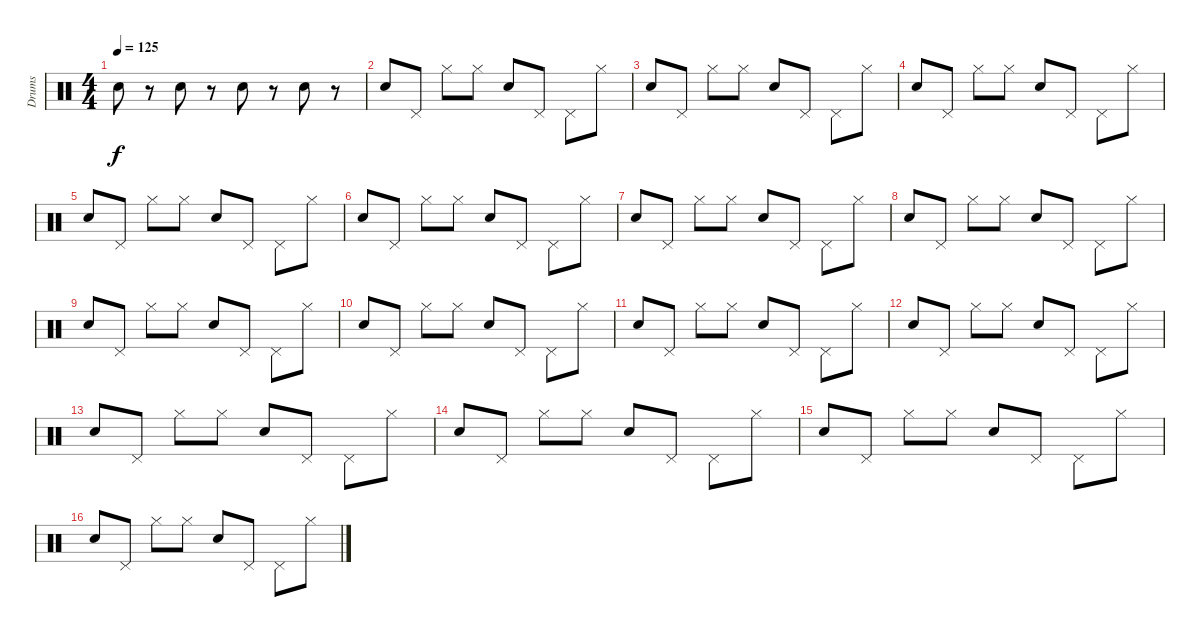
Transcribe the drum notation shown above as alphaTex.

\track ("Drums" "Drums") {instrument percussion}
\staff {score}
\articulation defaults
\ts (4 4)
\tempo 125
\clef neutral
\ks c "Snare (hit) 2".8{dy f}
r.8 "Snare (hit) 2".8 r.8 "Snare (hit) 2".8 r.8 "Snare (hit) 2".8 r.8 |
"Electric Snare (hit)".8 "Pedal Hi-Hat (hit)".8 "Hi-Hat (closed)".8 "Hi-Hat (closed)".8 "Electric Snare (hit)".8 "Pedal Hi-Hat (hit)".8 "Pedal Hi-Hat (hit)".8 "Hi-Hat (closed)".8 |
"Electric Snare (hit)".8 "Pedal Hi-Hat (hit)".8 "Hi-Hat (closed)".8 "Hi-Hat (closed)".8 "Electric Snare (hit)".8 "Pedal Hi-Hat (hit)".8 "Pedal Hi-Hat (hit)".8 "Hi-Hat (closed)".8 |
"Electric Snare (hit)".8 "Pedal Hi-Hat (hit)".8 "Hi-Hat (closed)".8 "Hi-Hat (closed)".8 "Electric Snare (hit)".8 "Pedal Hi-Hat (hit)".8 "Pedal Hi-Hat (hit)".8 "Hi-Hat (closed)".8 |
"Electric Snare (hit)".8 "Pedal Hi-Hat (hit)".8 "Hi-Hat (closed)".8 "Hi-Hat (closed)".8 "Electric Snare (hit)".8 "Pedal Hi-Hat (hit)".8 "Pedal Hi-Hat (hit)".8 "Hi-Hat (closed)".8 |
"Electric Snare (hit)".8 "Pedal Hi-Hat (hit)".8 "Hi-Hat (closed)".8 "Hi-Hat (closed)".8 "Electric Snare (hit)".8 "Pedal Hi-Hat (hit)".8 "Pedal Hi-Hat (hit)".8 "Hi-Hat (closed)".8 |
"Electric Snare (hit)".8 "Pedal Hi-Hat (hit)".8 "Hi-Hat (closed)".8 "Hi-Hat (closed)".8 "Electric Snare (hit)".8 "Pedal Hi-Hat (hit)".8 "Pedal Hi-Hat (hit)".8 "Hi-Hat (closed)".8 |
"Electric Snare (hit)".8 "Pedal Hi-Hat (hit)".8 "Hi-Hat (closed)".8 "Hi-Hat (closed)".8 "Electric Snare (hit)".8 "Pedal Hi-Hat (hit)".8 "Pedal Hi-Hat (hit)".8 "Hi-Hat (closed)".8 |
"Electric Snare (hit)".8 "Pedal Hi-Hat (hit)".8 "Hi-Hat (closed)".8 "Hi-Hat (closed)".8 "Electric Snare (hit)".8 "Pedal Hi-Hat (hit)".8 "Pedal Hi-Hat (hit)".8 "Hi-Hat (closed)".8 |
"Electric Snare (hit)".8 "Pedal Hi-Hat (hit)".8 "Hi-Hat (closed)".8 "Hi-Hat (closed)".8 "Electric Snare (hit)".8 "Pedal Hi-Hat (hit)".8 "Pedal Hi-Hat (hit)".8 "Hi-Hat (closed)".8 |
"Electric Snare (hit)".8 "Pedal Hi-Hat (hit)".8 "Hi-Hat (closed)".8 "Hi-Hat (closed)".8 "Electric Snare (hit)".8 "Pedal Hi-Hat (hit)".8 "Pedal Hi-Hat (hit)".8 "Hi-Hat (closed)".8 |
"Electric Snare (hit)".8 "Pedal Hi-Hat (hit)".8 "Hi-Hat (closed)".8 "Hi-Hat (closed)".8 "Electric Snare (hit)".8 "Pedal Hi-Hat (hit)".8 "Pedal Hi-Hat (hit)".8 "Hi-Hat (closed)".8 |
"Electric Snare (hit)".8 "Pedal Hi-Hat (hit)".8 "Hi-Hat (closed)".8 "Hi-Hat (closed)".8 "Electric Snare (hit)".8 "Pedal Hi-Hat (hit)".8 "Pedal Hi-Hat (hit)".8 "Hi-Hat (closed)".8 |
"Electric Snare (hit)".8 "Pedal Hi-Hat (hit)".8 "Hi-Hat (closed)".8 "Hi-Hat (closed)".8 "Electric Snare (hit)".8 "Pedal Hi-Hat (hit)".8 "Pedal Hi-Hat (hit)".8 "Hi-Hat (closed)".8 |
"Electric Snare (hit)".8 "Pedal Hi-Hat (hit)".8 "Hi-Hat (closed)".8 "Hi-Hat (closed)".8 "Electric Snare (hit)".8 "Pedal Hi-Hat (hit)".8 "Pedal Hi-Hat (hit)".8 "Hi-Hat (closed)".8 |
"Electric Snare (hit)".8 "Pedal Hi-Hat (hit)".8 "Hi-Hat (closed)".8 "Hi-Hat (closed)".8 "Electric Snare (hit)".8 "Pedal Hi-Hat (hit)".8 "Pedal Hi-Hat (hit)".8 "Hi-Hat (closed)".8
